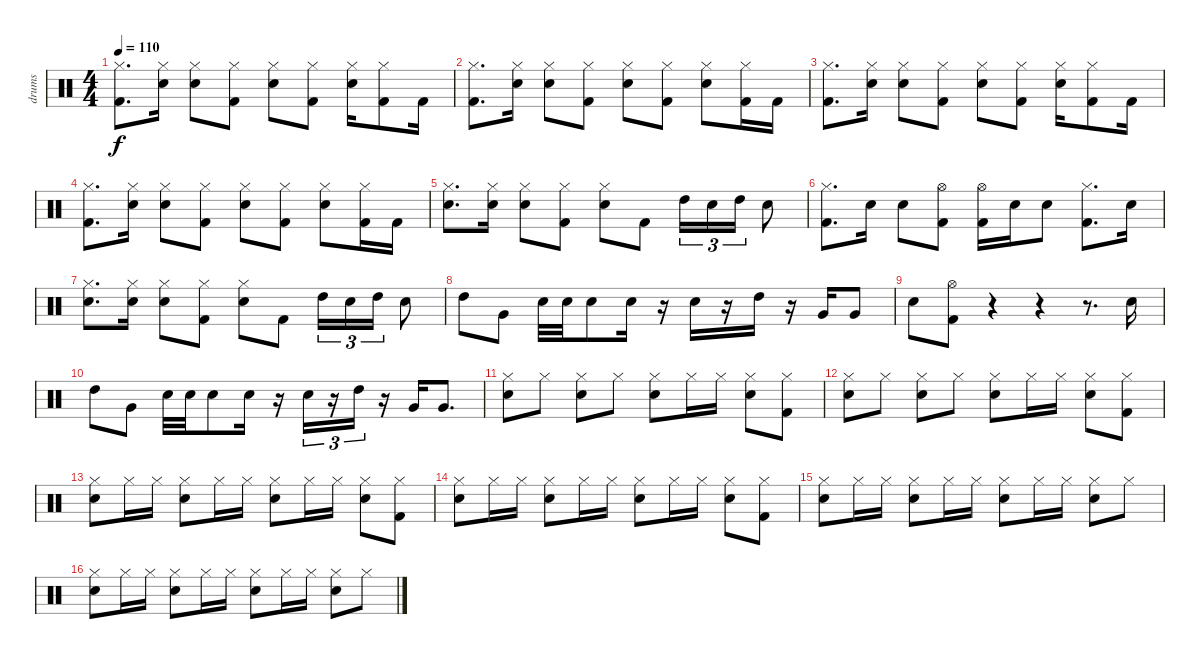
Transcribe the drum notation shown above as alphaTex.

\track ("drums" "drums") {instrument percussion}
\staff {score}
\articulation defaults
\ts (4 4)
\tempo 110
\clef neutral
\ks c
("Kick (hit) 2" "Hi-Hat (closed)").8{d dy f} ("Snare (hit) 2" "Hi-Hat (closed)").16 ("Hi-Hat (closed)" "Snare (hit) 2").8 ("Hi-Hat (closed)" "Kick (hit) 2").8 ("Snare (hit) 2" "Hi-Hat (closed)").8 ("Hi-Hat (closed)" "Kick (hit) 2").8 ("Hi-Hat (closed)" "Snare (hit) 2").16 ("Hi-Hat (closed)" "Kick (hit) 2").8 "Kick (hit) 2".16 |
("Hi-Hat (closed)" "Kick (hit) 2").8{d} ("Snare (hit) 2" "Hi-Hat (closed)").16 ("Snare (hit) 2" "Hi-Hat (closed)").8 ("Kick (hit) 2" "Hi-Hat (closed)").8 ("Hi-Hat (closed)" "Snare (hit) 2").8 ("Hi-Hat (closed)" "Kick (hit) 2").8 ("Hi-Hat (closed)" "Snare (hit) 2").8 ("Hi-Hat (closed)" "Kick (hit) 2").16 "Kick (hit) 2".16 |
("Kick (hit) 2" "Hi-Hat (closed)").8{d} ("Snare (hit) 2" "Hi-Hat (closed)").16 ("Hi-Hat (closed)" "Snare (hit) 2").8 ("Hi-Hat (closed)" "Kick (hit) 2").8 ("Snare (hit) 2" "Hi-Hat (closed)").8 ("Hi-Hat (closed)" "Kick (hit) 2").8 ("Hi-Hat (closed)" "Snare (hit) 2").16 ("Hi-Hat (closed)" "Kick (hit) 2").8 "Kick (hit) 2".16 |
("Hi-Hat (closed)" "Kick (hit) 2").8{d} ("Snare (hit) 2" "Hi-Hat (closed)").16 ("Snare (hit) 2" "Hi-Hat (closed)").8 ("Kick (hit) 2" "Hi-Hat (closed)").8 ("Hi-Hat (closed)" "Snare (hit) 2").8 ("Hi-Hat (closed)" "Kick (hit) 2").8 ("Hi-Hat (closed)" "Snare (hit) 2").8 ("Hi-Hat (closed)" "Kick (hit) 2").16 "Kick (hit) 2".16 |
("Hi-Hat (closed)" "Snare (hit) 2").8{d} ("Hi-Hat (closed)" "Snare (hit) 2").16 ("Hi-Hat (closed)" "Snare (hit) 2").8 ("Kick (hit) 2" "Hi-Hat (closed)").8 ("Hi-Hat (closed)" "Snare (hit) 2").8 "Kick (hit) 2".8 "High Tom (hit)".16{tu (3 2)} "Snare (hit) 2".16{tu (3 2)} "High Tom (hit)".16{tu (3 2)} "Snare (hit) 2".8 |
("Hi-Hat (closed)" "Kick (hit) 2").8{d} "Snare (hit) 2".16 "Snare (hit) 2".8 ("Hi-Hat (open)" "Kick (hit) 2").8 ("Hi-Hat (open)" "Kick (hit) 2").16 "Snare (hit) 2".16 "Snare (hit) 2".8 ("Hi-Hat (closed)" "Kick (hit) 2").8{d} "Snare (hit) 2".16 |
("Hi-Hat (closed)" "Snare (hit) 2").8{d} ("Hi-Hat (closed)" "Snare (hit) 2").16 ("Hi-Hat (closed)" "Snare (hit) 2").8 ("Kick (hit) 2" "Hi-Hat (closed)").8 ("Hi-Hat (closed)" "Snare (hit) 2").8 "Kick (hit) 2".8 "High Tom (hit)".16{tu (3 2)} "Snare (hit) 2".16{tu (3 2)} "High Tom (hit)".16{tu (3 2)} "Snare (hit) 2".8 |
"High Tom (hit)".8 "Very Low Tom (hit)".8 "Snare (hit) 2".32 "Snare (hit) 2".32 "Snare (hit) 2".8 "Snare (hit) 2".16 r.16 "Snare (hit) 2".16 r.16 "High Tom (hit)".16 r.16 "Very Low Tom (hit)".16 "Very Low Tom (hit)".8 |
"Snare (hit) 2".8 ("Hi-Hat (open)" "Kick (hit) 2").8 r.4 r.4 r.8{d} "Snare (hit) 2".16 |
"High Tom (hit)".8 "Very Low Tom (hit)".8 "Snare (hit) 2".32 "Snare (hit) 2".32 "Snare (hit) 2".8 "Snare (hit) 2".16 r.16 "Snare (hit) 2".16{tu (3 2)} r.16{tu (3 2)} "High Tom (hit)".16{tu (3 2)} r.16 "Very Low Tom (hit)".16 "Very Low Tom (hit)".8{d} |
("Hi-Hat (closed)" "Snare (hit) 2").8 "Hi-Hat (closed)".8 ("Hi-Hat (closed)" "Snare (hit) 2").8 "Hi-Hat (closed)".8 ("Hi-Hat (closed)" "Snare (hit) 2").8 "Hi-Hat (closed)".16 "Hi-Hat (closed)".16 ("Hi-Hat (closed)" "Snare (hit) 2").8 ("Hi-Hat (closed)" "Kick (hit) 2").8 |
("Hi-Hat (closed)" "Snare (hit) 2").8 "Hi-Hat (closed)".8 ("Hi-Hat (closed)" "Snare (hit) 2").8 "Hi-Hat (closed)".8 ("Hi-Hat (closed)" "Snare (hit) 2").8 "Hi-Hat (closed)".16 "Hi-Hat (closed)".16 ("Hi-Hat (closed)" "Snare (hit) 2").8 ("Hi-Hat (closed)" "Kick (hit) 2").8 |
("Hi-Hat (closed)" "Snare (hit) 2").8 "Hi-Hat (closed)".16 "Hi-Hat (closed)".16 ("Hi-Hat (closed)" "Snare (hit) 2").8 "Hi-Hat (closed)".16 "Hi-Hat (closed)".16 ("Hi-Hat (closed)" "Snare (hit) 2").8 "Hi-Hat (closed)".16 "Hi-Hat (closed)".16 ("Snare (hit) 2" "Hi-Hat (closed)").8 ("Kick (hit) 2" "Hi-Hat (closed)").8 |
("Hi-Hat (closed)" "Snare (hit) 2").8 "Hi-Hat (closed)".16 "Hi-Hat (closed)".16 ("Hi-Hat (closed)" "Snare (hit) 2").8 "Hi-Hat (closed)".16 "Hi-Hat (closed)".16 ("Hi-Hat (closed)" "Snare (hit) 2").8 "Hi-Hat (closed)".16 "Hi-Hat (closed)".16 ("Snare (hit) 2" "Hi-Hat (closed)").8 ("Kick (hit) 2" "Hi-Hat (closed)").8 |
("Hi-Hat (closed)" "Snare (hit) 2").8 "Hi-Hat (closed)".16 "Hi-Hat (closed)".16 ("Hi-Hat (closed)" "Snare (hit) 2").8 "Hi-Hat (closed)".16 "Hi-Hat (closed)".16 ("Hi-Hat (closed)" "Snare (hit) 2").8 "Hi-Hat (closed)".16 "Hi-Hat (closed)".16 ("Snare (hit) 2" "Hi-Hat (closed)").8 "Hi-Hat (closed)".8 |
("Hi-Hat (closed)" "Snare (hit) 2").8 "Hi-Hat (closed)".16 "Hi-Hat (closed)".16 ("Hi-Hat (closed)" "Snare (hit) 2").8 "Hi-Hat (closed)".16 "Hi-Hat (closed)".16 ("Hi-Hat (closed)" "Snare (hit) 2").8 "Hi-Hat (closed)".16 "Hi-Hat (closed)".16 ("Snare (hit) 2" "Hi-Hat (closed)").8 "Hi-Hat (closed)".8
